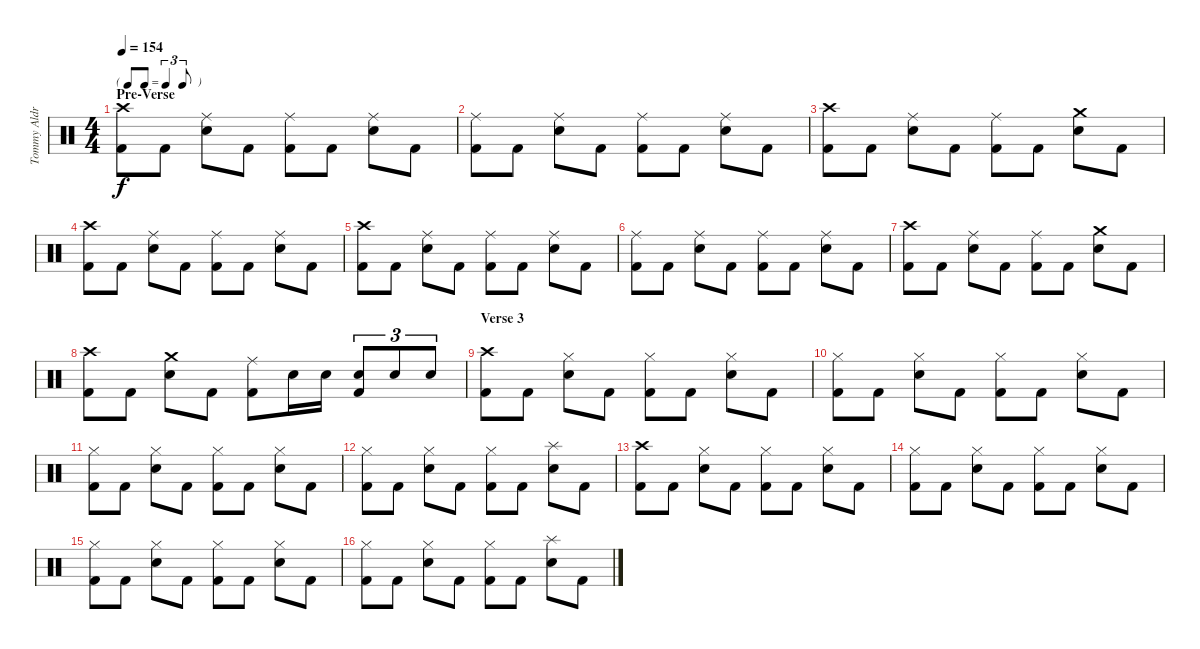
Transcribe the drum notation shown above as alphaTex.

\track ("Tommy Aldridge (Drums)" "Tommy Aldr") {instrument percussion}
\staff {score}
\articulation defaults
\ts (4 4)
\tf triplet8th
\section ("" "Pre-Verse")
\tempo 154
\clef neutral
\ks c
("Crash high (hit)" "Kick (hit) 2").8{dy f} "Kick (hit) 2".8 ("Ride (middle)" "Electric Snare (hit)").8 "Kick (hit) 2".8 ("Ride (middle)" "Kick (hit) 2").8 "Kick (hit) 2".8 ("Ride (middle)" "Electric Snare (hit)").8 "Kick (hit) 2".8 |
("Ride (middle)" "Kick (hit) 2").8 "Kick (hit) 2".8 ("Ride (middle)" "Electric Snare (hit)").8 "Kick (hit) 2".8 ("Ride (middle)" "Kick (hit) 2").8 "Kick (hit) 2".8 ("Ride (middle)" "Electric Snare (hit)").8 "Kick (hit) 2".8 |
("Crash high (hit)" "Kick (hit) 2").8 "Kick (hit) 2".8 ("Ride (middle)" "Electric Snare (hit)").8 "Kick (hit) 2".8 ("Ride (middle)" "Kick (hit) 2").8 "Kick (hit) 2".8 ("Crash medium (hit)" "Electric Snare (hit)").8 "Kick (hit) 2".8 |
("Crash high (hit)" "Kick (hit) 2").8 "Kick (hit) 2".8 ("Ride (middle)" "Electric Snare (hit)").8 "Kick (hit) 2".8 ("Ride (middle)" "Kick (hit) 2").8 "Kick (hit) 2".8 ("Ride (middle)" "Electric Snare (hit)").8 "Kick (hit) 2".8 |
("Crash high (hit)" "Kick (hit) 2").8 "Kick (hit) 2".8 ("Ride (middle)" "Electric Snare (hit)").8 "Kick (hit) 2".8 ("Ride (middle)" "Kick (hit) 2").8 "Kick (hit) 2".8 ("Ride (middle)" "Electric Snare (hit)").8 "Kick (hit) 2".8 |
("Ride (middle)" "Kick (hit) 2").8 "Kick (hit) 2".8 ("Ride (middle)" "Electric Snare (hit)").8 "Kick (hit) 2".8 ("Ride (middle)" "Kick (hit) 2").8 "Kick (hit) 2".8 ("Ride (middle)" "Electric Snare (hit)").8 "Kick (hit) 2".8 |
("Crash high (hit)" "Kick (hit) 2").8 "Kick (hit) 2".8 ("Ride (middle)" "Electric Snare (hit)").8 "Kick (hit) 2".8 ("Ride (middle)" "Kick (hit) 2").8 "Kick (hit) 2".8 ("Crash medium (hit)" "Electric Snare (hit)").8 "Kick (hit) 2".8 |
("Crash high (hit)" "Kick (hit) 2").8 "Kick (hit) 2".8 ("Crash medium (hit)" "Electric Snare (hit)").8 "Kick (hit) 2".8 ("Ride (middle)" "Kick (hit) 2").8 "Electric Snare (hit)".16 "Electric Snare (hit)".16 ("Electric Snare (hit)" "Kick (hit) 2").8{tu (3 2)} "Electric Snare (hit)".8{tu (3 2)} "Electric Snare (hit)".8{tu (3 2)} |
\section ("" "Verse 3")
("Crash high (hit)" "Kick (hit) 2").8 "Kick (hit) 2".8 ("Hi-Hat (closed)" "Electric Snare (hit)").8 "Kick (hit) 2".8 ("Hi-Hat (closed)" "Kick (hit) 2").8 "Kick (hit) 2".8 ("Hi-Hat (closed)" "Electric Snare (hit)").8 "Kick (hit) 2".8 |
("Hi-Hat (closed)" "Kick (hit) 2").8 "Kick (hit) 2".8 ("Hi-Hat (closed)" "Electric Snare (hit)").8 "Kick (hit) 2".8 ("Hi-Hat (closed)" "Kick (hit) 2").8 "Kick (hit) 2".8 ("Hi-Hat (closed)" "Electric Snare (hit)").8 "Kick (hit) 2".8 |
("Hi-Hat (closed)" "Kick (hit) 2").8 "Kick (hit) 2".8 ("Hi-Hat (closed)" "Electric Snare (hit)").8 "Kick (hit) 2".8 ("Hi-Hat (closed)" "Kick (hit) 2").8 "Kick (hit) 2".8 ("Hi-Hat (closed)" "Electric Snare (hit)").8 "Kick (hit) 2".8 |
("Hi-Hat (closed)" "Kick (hit) 2").8 "Kick (hit) 2".8 ("Hi-Hat (closed)" "Electric Snare (hit)").8 "Kick (hit) 2".8 ("Hi-Hat (closed)" "Kick (hit) 2").8 "Kick (hit) 2".8 ("Splash (hit)" "Electric Snare (hit)").8 "Kick (hit) 2".8 |
("Crash high (hit)" "Kick (hit) 2").8 "Kick (hit) 2".8 ("Hi-Hat (closed)" "Electric Snare (hit)").8 "Kick (hit) 2".8 ("Hi-Hat (closed)" "Kick (hit) 2").8 "Kick (hit) 2".8 ("Hi-Hat (closed)" "Electric Snare (hit)").8 "Kick (hit) 2".8 |
("Hi-Hat (closed)" "Kick (hit) 2").8 "Kick (hit) 2".8 ("Hi-Hat (closed)" "Electric Snare (hit)").8 "Kick (hit) 2".8 ("Hi-Hat (closed)" "Kick (hit) 2").8 "Kick (hit) 2".8 ("Hi-Hat (closed)" "Electric Snare (hit)").8 "Kick (hit) 2".8 |
("Hi-Hat (closed)" "Kick (hit) 2").8 "Kick (hit) 2".8 ("Hi-Hat (closed)" "Electric Snare (hit)").8 "Kick (hit) 2".8 ("Hi-Hat (closed)" "Kick (hit) 2").8 "Kick (hit) 2".8 ("Hi-Hat (closed)" "Electric Snare (hit)").8 "Kick (hit) 2".8 |
("Hi-Hat (closed)" "Kick (hit) 2").8 "Kick (hit) 2".8 ("Hi-Hat (closed)" "Electric Snare (hit)").8 "Kick (hit) 2".8 ("Hi-Hat (closed)" "Kick (hit) 2").8 "Kick (hit) 2".8 ("Splash (hit)" "Electric Snare (hit)").8 "Kick (hit) 2".8
